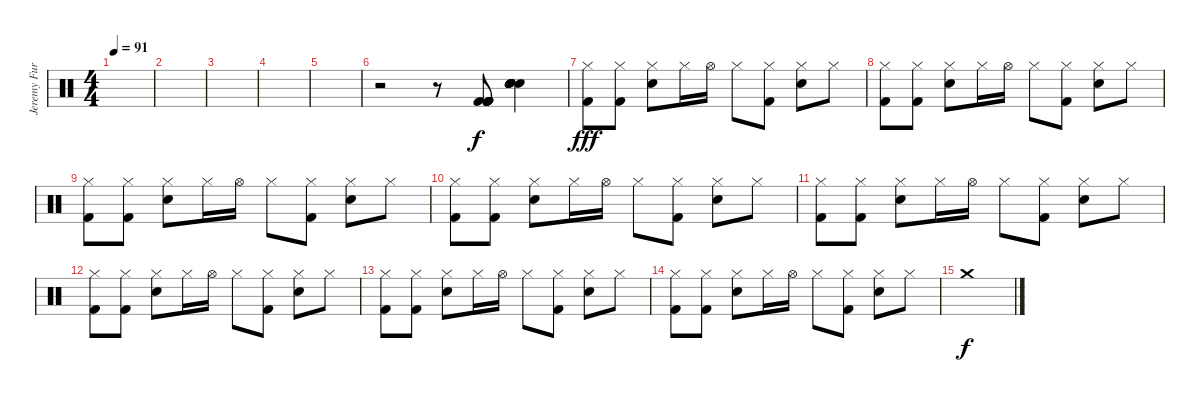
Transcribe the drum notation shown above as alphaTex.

\track ("Jeremy Furstenfeld - drums" "Jeremy Fur") {instrument percussion}
\staff {score}
\articulation defaults
\ts (4 4)
\tempo 91
\clef neutral
\ks c
|
|
|
|
|
r.2 r.8 ("Kick (hit) 2" "Kick (hit) 2" "Kick (hit) 2" "Kick (hit) 2" "Kick (hit) 2" "Kick (hit) 2").8 ("Electric Snare (hit)" "Electric Snare (hit)" "Electric Snare (hit)" "Electric Snare (hit)" "Electric Snare (hit)" "Electric Snare (hit)").4 |
("Hi-Hat (closed)" "Kick (hit) 2").8{dy fff} ("Hi-Hat (closed)" "Kick (hit) 2").8 ("Hi-Hat (closed)" "Electric Snare (hit)").8 "Hi-Hat (closed)".16 "Hi-Hat (open)".16 "Hi-Hat (closed)".8 ("Hi-Hat (closed)" "Kick (hit) 2").8 ("Hi-Hat (closed)" "Electric Snare (hit)").8 "Hi-Hat (closed)".8 |
("Hi-Hat (closed)" "Kick (hit) 2").8 ("Hi-Hat (closed)" "Kick (hit) 2").8 ("Hi-Hat (closed)" "Electric Snare (hit)").8 "Hi-Hat (closed)".16 "Hi-Hat (open)".16 "Hi-Hat (closed)".8 ("Hi-Hat (closed)" "Kick (hit) 2").8 ("Hi-Hat (closed)" "Electric Snare (hit)").8 "Hi-Hat (closed)".8 |
("Hi-Hat (closed)" "Kick (hit) 2").8 ("Hi-Hat (closed)" "Kick (hit) 2").8 ("Hi-Hat (closed)" "Electric Snare (hit)").8 "Hi-Hat (closed)".16 "Hi-Hat (open)".16 "Hi-Hat (closed)".8 ("Hi-Hat (closed)" "Kick (hit) 2").8 ("Hi-Hat (closed)" "Electric Snare (hit)").8 "Hi-Hat (closed)".8 |
("Hi-Hat (closed)" "Kick (hit) 2").8 ("Hi-Hat (closed)" "Kick (hit) 2").8 ("Hi-Hat (closed)" "Electric Snare (hit)").8 "Hi-Hat (closed)".16 "Hi-Hat (open)".16 "Hi-Hat (closed)".8 ("Hi-Hat (closed)" "Kick (hit) 2").8 ("Hi-Hat (closed)" "Electric Snare (hit)").8 "Hi-Hat (closed)".8 |
("Hi-Hat (closed)" "Kick (hit) 2").8 ("Hi-Hat (closed)" "Kick (hit) 2").8 ("Hi-Hat (closed)" "Electric Snare (hit)").8 "Hi-Hat (closed)".16 "Hi-Hat (open)".16 "Hi-Hat (closed)".8 ("Hi-Hat (closed)" "Kick (hit) 2").8 ("Hi-Hat (closed)" "Electric Snare (hit)").8 "Hi-Hat (closed)".8 |
("Hi-Hat (closed)" "Kick (hit) 2").8 ("Hi-Hat (closed)" "Kick (hit) 2").8 ("Hi-Hat (closed)" "Electric Snare (hit)").8 "Hi-Hat (closed)".16 "Hi-Hat (open)".16 "Hi-Hat (closed)".8 ("Hi-Hat (closed)" "Kick (hit) 2").8 ("Hi-Hat (closed)" "Electric Snare (hit)").8 "Hi-Hat (closed)".8 |
("Hi-Hat (closed)" "Kick (hit) 2").8 ("Hi-Hat (closed)" "Kick (hit) 2").8 ("Hi-Hat (closed)" "Electric Snare (hit)").8 "Hi-Hat (closed)".16 "Hi-Hat (open)".16 "Hi-Hat (closed)".8 ("Hi-Hat (closed)" "Kick (hit) 2").8 ("Hi-Hat (closed)" "Electric Snare (hit)").8 "Hi-Hat (closed)".8 |
("Hi-Hat (closed)" "Kick (hit) 2").8 ("Hi-Hat (closed)" "Kick (hit) 2").8 ("Hi-Hat (closed)" "Electric Snare (hit)").8 "Hi-Hat (closed)".16 "Hi-Hat (open)".16 "Hi-Hat (closed)".8 ("Hi-Hat (closed)" "Kick (hit) 2").8 ("Hi-Hat (closed)" "Electric Snare (hit)").8 "Hi-Hat (closed)".8 |
"Crash medium (hit)".1{dy f}
